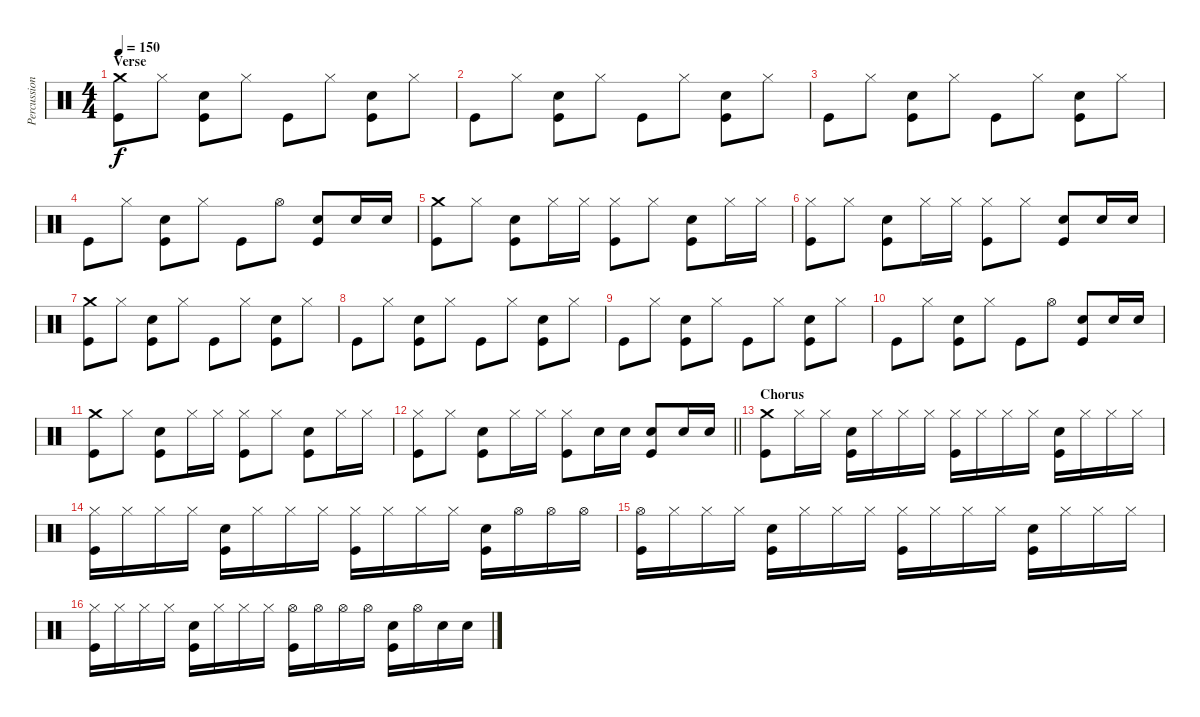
\track ("Percussion" "Percussion") {instrument percussion}
\staff {score}
\articulation defaults
\ts (4 4)
\section ("" "Verse")
\tempo 150
\clef neutral
\ks c
("Crash medium (hit)" "Kick (hit)").8{dy f} "Hi-Hat (closed)".8 ("Snare (hit) 2" "Kick (hit)").8 "Hi-Hat (closed)".8 "Kick (hit)".8 "Hi-Hat (closed)".8 ("Snare (hit) 2" "Kick (hit)").8 "Hi-Hat (closed)".8 |
"Kick (hit)".8 "Hi-Hat (closed)".8 ("Snare (hit) 2" "Kick (hit)").8 "Hi-Hat (closed)".8 "Kick (hit)".8 "Hi-Hat (closed)".8 ("Snare (hit) 2" "Kick (hit)").8 "Hi-Hat (closed)".8 |
"Kick (hit)".8 "Hi-Hat (closed)".8 ("Snare (hit) 2" "Kick (hit)").8 "Hi-Hat (closed)".8 "Kick (hit)".8 "Hi-Hat (closed)".8 ("Snare (hit) 2" "Kick (hit)").8 "Hi-Hat (closed)".8 |
"Kick (hit)".8 "Hi-Hat (closed)".8 ("Snare (hit) 2" "Kick (hit)").8 "Hi-Hat (closed)".8 "Kick (hit)".8 "Hi-Hat (open)".8 ("Snare (hit) 2" "Kick (hit)").8 "Snare (hit) 2".16 "Snare (hit) 2".16 |
("Crash medium (hit)" "Kick (hit)").8 "Hi-Hat (closed)".8 ("Snare (hit) 2" "Kick (hit)").8 "Hi-Hat (closed)".16 "Hi-Hat (closed)".16 ("Hi-Hat (closed)" "Kick (hit)").8 "Hi-Hat (closed)".8 ("Snare (hit) 2" "Kick (hit)").8 "Hi-Hat (closed)".16 "Hi-Hat (closed)".16 |
("Hi-Hat (closed)" "Kick (hit)").8 "Hi-Hat (closed)".8 ("Snare (hit) 2" "Kick (hit)").8 "Hi-Hat (closed)".16 "Hi-Hat (closed)".16 ("Hi-Hat (closed)" "Kick (hit)").8 "Hi-Hat (closed)".8 ("Snare (hit) 2" "Kick (hit)").8 "Snare (hit) 2".16 "Snare (hit) 2".16 |
("Crash medium (hit)" "Kick (hit)").8 "Hi-Hat (closed)".8 ("Snare (hit) 2" "Kick (hit)").8 "Hi-Hat (closed)".8 "Kick (hit)".8 "Hi-Hat (closed)".8 ("Snare (hit) 2" "Kick (hit)").8 "Hi-Hat (closed)".8 |
"Kick (hit)".8 "Hi-Hat (closed)".8 ("Snare (hit) 2" "Kick (hit)").8 "Hi-Hat (closed)".8 "Kick (hit)".8 "Hi-Hat (closed)".8 ("Snare (hit) 2" "Kick (hit)").8 "Hi-Hat (closed)".8 |
"Kick (hit)".8 "Hi-Hat (closed)".8 ("Snare (hit) 2" "Kick (hit)").8 "Hi-Hat (closed)".8 "Kick (hit)".8 "Hi-Hat (closed)".8 ("Snare (hit) 2" "Kick (hit)").8 "Hi-Hat (closed)".8 |
"Kick (hit)".8 "Hi-Hat (closed)".8 ("Snare (hit) 2" "Kick (hit)").8 "Hi-Hat (closed)".8 "Kick (hit)".8 "Hi-Hat (open)".8 ("Snare (hit) 2" "Kick (hit)").8 "Snare (hit) 2".16 "Snare (hit) 2".16 |
("Crash medium (hit)" "Kick (hit)").8 "Hi-Hat (closed)".8 ("Snare (hit) 2" "Kick (hit)").8 "Hi-Hat (closed)".16 "Hi-Hat (closed)".16 ("Hi-Hat (closed)" "Kick (hit)").8 "Hi-Hat (closed)".8 ("Snare (hit) 2" "Kick (hit)").8 "Hi-Hat (closed)".16 "Hi-Hat (closed)".16 |
\barLineRight lightlight
("Hi-Hat (closed)" "Kick (hit)").8 "Hi-Hat (closed)".8 ("Snare (hit) 2" "Kick (hit)").8 "Hi-Hat (closed)".16 "Hi-Hat (closed)".16 ("Hi-Hat (closed)" "Kick (hit)").8 "Snare (hit) 2".16 "Snare (hit) 2".16 ("Snare (hit) 2" "Kick (hit)").8 "Snare (hit) 2".16 "Snare (hit) 2".16 |
\section ("" "Chorus")
("Crash medium (hit)" "Kick (hit)").8 "Hi-Hat (closed)".16 "Hi-Hat (closed)".16 ("Snare (hit) 2" "Kick (hit)").16 "Hi-Hat (closed)".16 "Hi-Hat (closed)".16 "Hi-Hat (closed)".16 ("Hi-Hat (closed)" "Kick (hit)").16 "Hi-Hat (closed)".16 "Hi-Hat (closed)".16 "Hi-Hat (closed)".16 ("Snare (hit) 2" "Kick (hit)").16 "Hi-Hat (closed)".16 "Hi-Hat (closed)".16 "Hi-Hat (closed)".16 |
("Hi-Hat (closed)" "Kick (hit)").16 "Hi-Hat (closed)".16 "Hi-Hat (closed)".16 "Hi-Hat (closed)".16 ("Snare (hit) 2" "Kick (hit)").16 "Hi-Hat (closed)".16 "Hi-Hat (closed)".16 "Hi-Hat (closed)".16 ("Hi-Hat (closed)" "Kick (hit)").16 "Hi-Hat (closed)".16 "Hi-Hat (closed)".16 "Hi-Hat (closed)".16 ("Snare (hit) 2" "Kick (hit)").16 "Hi-Hat (open)".16 "Hi-Hat (open)".16 "Hi-Hat (open)".16 |
("Hi-Hat (open)" "Kick (hit)").16 "Hi-Hat (closed)".16 "Hi-Hat (closed)".16 "Hi-Hat (closed)".16 ("Snare (hit) 2" "Kick (hit)").16 "Hi-Hat (closed)".16 "Hi-Hat (closed)".16 "Hi-Hat (closed)".16 ("Hi-Hat (closed)" "Kick (hit)").16 "Hi-Hat (closed)".16 "Hi-Hat (closed)".16 "Hi-Hat (closed)".16 ("Snare (hit) 2" "Kick (hit)").16 "Hi-Hat (closed)".16 "Hi-Hat (closed)".16 "Hi-Hat (closed)".16 |
("Hi-Hat (closed)" "Kick (hit)").16 "Hi-Hat (closed)".16 "Hi-Hat (closed)".16 "Hi-Hat (closed)".16 ("Snare (hit) 2" "Kick (hit)").16 "Hi-Hat (closed)".16 "Hi-Hat (closed)".16 "Hi-Hat (closed)".16 ("Hi-Hat (open)" "Kick (hit)").16 "Hi-Hat (open)".16 "Hi-Hat (open)".16 "Hi-Hat (open)".16 ("Snare (hit) 2" "Kick (hit)").16 "Hi-Hat (open)".16 "Snare (hit) 2".16 "Snare (hit) 2".16
